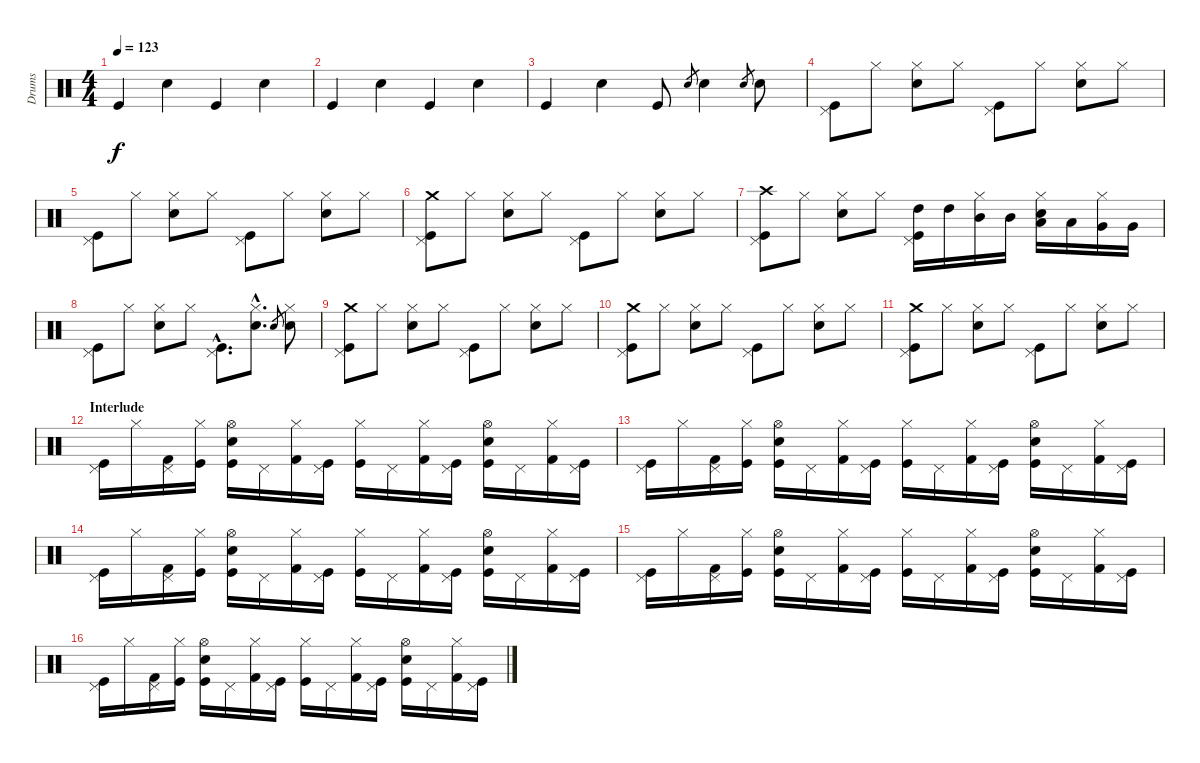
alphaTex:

\track ("Drums" "Drums") {instrument percussion}
\staff {score}
\articulation defaults
\ts (4 4)
\tempo 123
\clef neutral
\ks c "Kick (hit)".4{dy f} "Snare (hit) 2".4 "Kick (hit)".4 "Snare (hit) 2".4
|
"Kick (hit)".4 "Snare (hit) 2".4 "Kick (hit)".4 "Snare (hit) 2".4 |
"Kick (hit)".4 "Snare (hit) 2".4 "Kick (hit)".8 "Snare (hit) 2".8{gr} "Snare (hit) 2".4 "Snare (hit) 2".8{gr} "Snare (hit) 2".8 |
("Pedal Hi-Hat (hit)" "Kick (hit)").8 "Hi-Hat (closed)".8 ("Hi-Hat (closed)" "Snare (hit) 2").8 "Hi-Hat (closed)".8 ("Pedal Hi-Hat (hit)" "Kick (hit)").8 "Hi-Hat (closed)".8 ("Hi-Hat (closed)" "Snare (hit) 2").8 "Hi-Hat (closed)".8 |
("Pedal Hi-Hat (hit)" "Kick (hit)").8 "Hi-Hat (closed)".8 ("Hi-Hat (closed)" "Snare (hit) 2").8 "Hi-Hat (closed)".8 ("Pedal Hi-Hat (hit)" "Kick (hit)").8 "Hi-Hat (closed)".8 ("Hi-Hat (closed)" "Snare (hit) 2").8 "Hi-Hat (closed)".8 |
("Crash medium (hit)" "Pedal Hi-Hat (hit)" "Kick (hit)").8 "Hi-Hat (closed)".8 ("Hi-Hat (closed)" "Snare (hit) 2").8 "Hi-Hat (closed)".8 ("Pedal Hi-Hat (hit)" "Kick (hit)").8 "Hi-Hat (closed)".8 ("Hi-Hat (closed)" "Snare (hit) 2").8 "Hi-Hat (closed)".8 |
("Crash high (hit)" "Pedal Hi-Hat (hit)" "Kick (hit)").8 "Hi-Hat (closed)".8 ("Hi-Hat (closed)" "Snare (hit) 2").8 "Hi-Hat (closed)".8 ("Pedal Hi-Hat (hit)" "High Tom (hit)" "Kick (hit)").16 "High Tom (hit)".16 ("Hi-Hat (closed)" "Mid Tom (hit)").16 "Mid Tom (hit)".16 ("Hi-Hat (closed)" "Snare (hit) 2" "Low Tom (hit)").16 "Low Tom (hit)".16 ("Hi-Hat (closed)" "Very Low Tom (hit)").16 "Very Low Tom (hit)".16 |
("Pedal Hi-Hat (hit)" "Kick (hit)").8 "Hi-Hat (closed)".8 ("Hi-Hat (closed)" "Snare (hit) 2").8 "Hi-Hat (closed)".8 ("Pedal Hi-Hat (hit)"{hac} "Kick (hit)"{hac}).8{d} ("Hi-Hat (closed)"{hac} "Snare (hit) 2"{hac}).8{d} "Snare (hit) 2".8{gr} ("Hi-Hat (closed)" "Snare (hit) 2").8 |
("Crash medium (hit)" "Pedal Hi-Hat (hit)" "Kick (hit)").8 "Hi-Hat (closed)".8 ("Hi-Hat (closed)" "Snare (hit) 2").8 "Hi-Hat (closed)".8 ("Pedal Hi-Hat (hit)" "Kick (hit)").8 "Hi-Hat (closed)".8 ("Hi-Hat (closed)" "Snare (hit) 2").8 "Hi-Hat (closed)".8 |
("Crash medium (hit)" "Pedal Hi-Hat (hit)" "Kick (hit)").8 "Hi-Hat (closed)".8 ("Hi-Hat (closed)" "Snare (hit) 2").8 "Hi-Hat (closed)".8 ("Pedal Hi-Hat (hit)" "Kick (hit)").8 "Hi-Hat (closed)".8 ("Hi-Hat (closed)" "Snare (hit) 2").8 "Hi-Hat (closed)".8 |
("Crash medium (hit)" "Pedal Hi-Hat (hit)" "Kick (hit)").8 "Hi-Hat (closed)".8 ("Hi-Hat (closed)" "Snare (hit) 2").8 "Hi-Hat (closed)".8 ("Pedal Hi-Hat (hit)" "Kick (hit)").8 "Hi-Hat (closed)".8 ("Hi-Hat (closed)" "Snare (hit) 2").8 "Hi-Hat (closed)".8 |
\section ("" "Interlude")
("Pedal Hi-Hat (hit)" "Kick (hit)").16 "Hi-Hat (closed)".16 ("Pedal Hi-Hat (hit)" "Kick (hit) 2").16 ("Hi-Hat (closed)" "Kick (hit)").16 ("Hi-Hat (open)" "Snare (hit) 2" "Kick (hit)").16 "Pedal Hi-Hat (hit)".16 ("Hi-Hat (closed)" "Kick (hit) 2").16 ("Pedal Hi-Hat (hit)" "Kick (hit)").16 ("Hi-Hat (closed)" "Kick (hit)").16 "Pedal Hi-Hat (hit)".16 ("Hi-Hat (closed)" "Kick (hit) 2").16 ("Pedal Hi-Hat (hit)" "Kick (hit)").16 ("Hi-Hat (open)" "Snare (hit) 2" "Kick (hit)").16 "Pedal Hi-Hat (hit)".16 ("Hi-Hat (closed)" "Kick (hit) 2").16 ("Pedal Hi-Hat (hit)" "Kick (hit)").16 |
("Pedal Hi-Hat (hit)" "Kick (hit)").16 "Hi-Hat (closed)".16 ("Pedal Hi-Hat (hit)" "Kick (hit) 2").16 ("Hi-Hat (closed)" "Kick (hit)").16 ("Hi-Hat (open)" "Snare (hit) 2" "Kick (hit)").16 "Pedal Hi-Hat (hit)".16 ("Hi-Hat (closed)" "Kick (hit) 2").16 ("Pedal Hi-Hat (hit)" "Kick (hit)").16 ("Hi-Hat (closed)" "Kick (hit)").16 "Pedal Hi-Hat (hit)".16 ("Hi-Hat (closed)" "Kick (hit) 2").16 ("Pedal Hi-Hat (hit)" "Kick (hit)").16 ("Hi-Hat (open)" "Snare (hit) 2" "Kick (hit)").16 "Pedal Hi-Hat (hit)".16 ("Hi-Hat (closed)" "Kick (hit) 2").16 ("Pedal Hi-Hat (hit)" "Kick (hit)").16 |
("Pedal Hi-Hat (hit)" "Kick (hit)").16 "Hi-Hat (closed)".16 ("Pedal Hi-Hat (hit)" "Kick (hit) 2").16 ("Hi-Hat (closed)" "Kick (hit)").16 ("Hi-Hat (open)" "Snare (hit) 2" "Kick (hit)").16 "Pedal Hi-Hat (hit)".16 ("Hi-Hat (closed)" "Kick (hit) 2").16 ("Pedal Hi-Hat (hit)" "Kick (hit)").16 ("Hi-Hat (closed)" "Kick (hit)").16 "Pedal Hi-Hat (hit)".16 ("Hi-Hat (closed)" "Kick (hit) 2").16 ("Pedal Hi-Hat (hit)" "Kick (hit)").16 ("Hi-Hat (open)" "Snare (hit) 2" "Kick (hit)").16 "Pedal Hi-Hat (hit)".16 ("Hi-Hat (closed)" "Kick (hit) 2").16 ("Pedal Hi-Hat (hit)" "Kick (hit)").16 |
("Pedal Hi-Hat (hit)" "Kick (hit)").16 "Hi-Hat (closed)".16 ("Pedal Hi-Hat (hit)" "Kick (hit) 2").16 ("Hi-Hat (closed)" "Kick (hit)").16 ("Hi-Hat (open)" "Snare (hit) 2" "Kick (hit)").16 "Pedal Hi-Hat (hit)".16 ("Hi-Hat (closed)" "Kick (hit) 2").16 ("Pedal Hi-Hat (hit)" "Kick (hit)").16 ("Hi-Hat (closed)" "Kick (hit)").16 "Pedal Hi-Hat (hit)".16 ("Hi-Hat (closed)" "Kick (hit) 2").16 ("Pedal Hi-Hat (hit)" "Kick (hit)").16 ("Hi-Hat (open)" "Snare (hit) 2" "Kick (hit)").16 "Pedal Hi-Hat (hit)".16 ("Hi-Hat (closed)" "Kick (hit) 2").16 ("Pedal Hi-Hat (hit)" "Kick (hit)").16 |
("Pedal Hi-Hat (hit)" "Kick (hit)").16 "Hi-Hat (closed)".16 ("Pedal Hi-Hat (hit)" "Kick (hit) 2").16 ("Hi-Hat (closed)" "Kick (hit)").16 ("Hi-Hat (open)" "Snare (hit) 2" "Kick (hit)").16 "Pedal Hi-Hat (hit)".16 ("Hi-Hat (closed)" "Kick (hit) 2").16 ("Pedal Hi-Hat (hit)" "Kick (hit)").16 ("Hi-Hat (closed)" "Kick (hit)").16 "Pedal Hi-Hat (hit)".16 ("Hi-Hat (closed)" "Kick (hit) 2").16 ("Pedal Hi-Hat (hit)" "Kick (hit)").16 ("Hi-Hat (open)" "Snare (hit) 2" "Kick (hit)").16 "Pedal Hi-Hat (hit)".16 ("Hi-Hat (closed)" "Kick (hit) 2").16 ("Pedal Hi-Hat (hit)" "Kick (hit)").16
